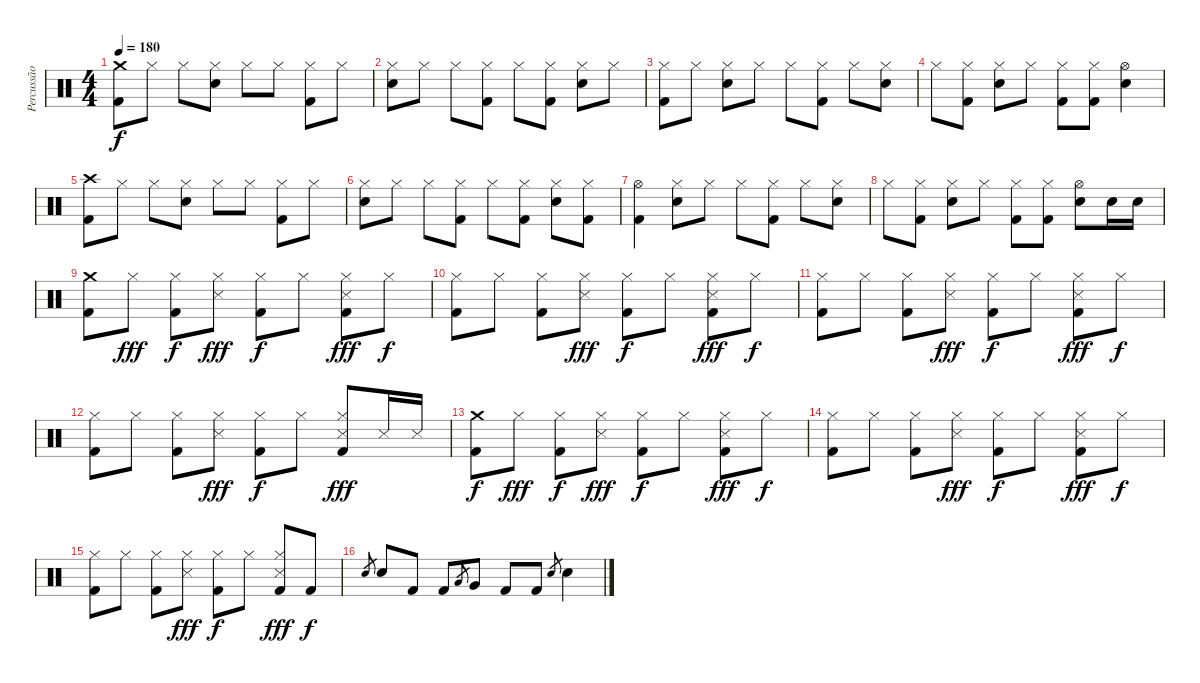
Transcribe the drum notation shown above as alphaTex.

\track ("Percussão" "Percussão") {instrument percussion}
\staff {score}
\articulation defaults
\ts (4 4)
\tempo 180
\clef neutral
\ks c
("Crash medium (hit)" "Kick (hit) 2").8{dy f} "Hi-Hat (closed)".8 "Hi-Hat (closed)".8 ("Hi-Hat (closed)" "Electric Snare (hit)").8 "Hi-Hat (closed)".8 "Hi-Hat (closed)".8 ("Hi-Hat (closed)" "Kick (hit) 2").8 "Hi-Hat (closed)".8 |
("Hi-Hat (closed)" "Electric Snare (hit)").8 "Hi-Hat (closed)".8 "Hi-Hat (closed)".8 ("Hi-Hat (closed)" "Kick (hit) 2").8 "Hi-Hat (closed)".8 ("Hi-Hat (closed)" "Kick (hit) 2").8 ("Hi-Hat (closed)" "Electric Snare (hit)").8 "Hi-Hat (closed)".8 |
("Hi-Hat (closed)" "Kick (hit) 2").8 "Hi-Hat (closed)".8 ("Hi-Hat (closed)" "Electric Snare (hit)").8 "Hi-Hat (closed)".8 "Hi-Hat (closed)".8 ("Hi-Hat (closed)" "Kick (hit) 2").8 "Hi-Hat (closed)".8 ("Hi-Hat (closed)" "Electric Snare (hit)").8 |
"Hi-Hat (closed)".8 ("Hi-Hat (closed)" "Kick (hit) 2").8 ("Hi-Hat (closed)" "Electric Snare (hit)").8 "Hi-Hat (closed)".8 ("Hi-Hat (closed)" "Kick (hit) 2").8 ("Hi-Hat (closed)" "Kick (hit) 2").8 ("Hi-Hat (open)" "Electric Snare (hit)").4 |
("Crash high (hit)" "Kick (hit) 2").8 "Hi-Hat (closed)".8 "Hi-Hat (closed)".8 ("Hi-Hat (closed)" "Electric Snare (hit)").8 "Hi-Hat (closed)".8 "Hi-Hat (closed)".8 ("Hi-Hat (closed)" "Kick (hit) 2").8 "Hi-Hat (closed)".8 |
("Hi-Hat (closed)" "Electric Snare (hit)").8 "Hi-Hat (closed)".8 "Hi-Hat (closed)".8 ("Hi-Hat (closed)" "Kick (hit) 2").8 "Hi-Hat (closed)".8 ("Hi-Hat (closed)" "Kick (hit) 2").8 ("Hi-Hat (closed)" "Electric Snare (hit)").8 ("Hi-Hat (closed)" "Kick (hit) 2").8 |
("Hi-Hat (open)" "Kick (hit) 2").4 ("Hi-Hat (closed)" "Electric Snare (hit)").8 "Hi-Hat (closed)".8 "Hi-Hat (closed)".8 ("Hi-Hat (closed)" "Kick (hit) 2").8 "Hi-Hat (closed)".8 ("Hi-Hat (closed)" "Electric Snare (hit)").8 |
"Hi-Hat (closed)".8 ("Hi-Hat (closed)" "Kick (hit) 2").8 ("Hi-Hat (closed)" "Electric Snare (hit)").8 "Hi-Hat (closed)".8 ("Hi-Hat (closed)" "Kick (hit) 2").8 ("Hi-Hat (closed)" "Kick (hit) 2").8 ("Hi-Hat (open)" "Electric Snare (hit)").8 "Electric Snare (hit)".16 "Electric Snare (hit)".16 |
("Crash medium (hit)" "Kick (hit) 2").8 "Hi-Hat (closed)".8{dy fff} ("Hi-Hat (closed)" "Kick (hit) 2").8{dy f} ("Hi-Hat (closed)" "Snare (side stick) 3").8{dy fff} ("Hi-Hat (closed)" "Kick (hit) 2").8{dy f} "Hi-Hat (closed)".8 ("Hi-Hat (closed)" "Snare (side stick) 3" "Kick (hit) 2").8{dy fff} "Hi-Hat (closed)".8{dy f} |
("Hi-Hat (closed)" "Kick (hit) 2").8 "Hi-Hat (closed)".8 ("Hi-Hat (closed)" "Kick (hit) 2").8 ("Hi-Hat (closed)" "Snare (side stick) 3").8{dy fff} ("Hi-Hat (closed)" "Kick (hit) 2").8{dy f} "Hi-Hat (closed)".8 ("Hi-Hat (closed)" "Snare (side stick) 3" "Kick (hit) 2").8{dy fff} "Hi-Hat (closed)".8{dy f} |
("Hi-Hat (closed)" "Kick (hit) 2").8 "Hi-Hat (closed)".8 ("Hi-Hat (closed)" "Kick (hit) 2").8 ("Hi-Hat (closed)" "Snare (side stick) 3").8{dy fff} ("Hi-Hat (closed)" "Kick (hit) 2").8{dy f} "Hi-Hat (closed)".8 ("Hi-Hat (closed)" "Snare (side stick) 3" "Kick (hit) 2").8{dy fff} "Hi-Hat (closed)".8{dy f} |
("Hi-Hat (closed)" "Kick (hit) 2").8 "Hi-Hat (closed)".8 ("Hi-Hat (closed)" "Kick (hit) 2").8 ("Hi-Hat (closed)" "Snare (side stick) 3").8{dy fff} ("Hi-Hat (closed)" "Kick (hit) 2").8{dy f} "Hi-Hat (closed)".8 ("Hi-Hat (closed)" "Snare (side stick) 3" "Kick (hit) 2").8{dy fff} "Snare (side stick) 3".16 "Snare (side stick) 3".16 |
("Crash medium (hit)" "Kick (hit) 2").8{dy f} "Hi-Hat (closed)".8{dy fff} ("Hi-Hat (closed)" "Kick (hit) 2").8{dy f} ("Hi-Hat (closed)" "Snare (side stick) 3").8{dy fff} ("Hi-Hat (closed)" "Kick (hit) 2").8{dy f} "Hi-Hat (closed)".8 ("Hi-Hat (closed)" "Snare (side stick) 3" "Kick (hit) 2").8{dy fff} "Hi-Hat (closed)".8{dy f} |
("Hi-Hat (closed)" "Kick (hit) 2").8 "Hi-Hat (closed)".8 ("Hi-Hat (closed)" "Kick (hit) 2").8 ("Hi-Hat (closed)" "Snare (side stick) 3").8{dy fff} ("Hi-Hat (closed)" "Kick (hit) 2").8{dy f} "Hi-Hat (closed)".8 ("Hi-Hat (closed)" "Snare (side stick) 3" "Kick (hit) 2").8{dy fff} "Hi-Hat (closed)".8{dy f} |
("Hi-Hat (closed)" "Kick (hit) 2").8 "Hi-Hat (closed)".8 ("Hi-Hat (closed)" "Kick (hit) 2").8 ("Hi-Hat (closed)" "Snare (side stick) 3").8{dy fff} ("Hi-Hat (closed)" "Kick (hit) 2").8{dy f} "Hi-Hat (closed)".8 ("Hi-Hat (closed)" "Snare (side stick) 3" "Kick (hit) 2").8{dy fff} "Kick (hit) 2".8{dy f} |
"Electric Snare (hit)".8{gr} "Electric Snare (hit)".8 "Kick (hit) 2".8 "Kick (hit) 2".8 "Low Tom (hit)".8{gr} "Very Low Tom (hit)".8 "Kick (hit) 2".8 "Kick (hit) 2".8 "Electric Snare (hit)".8{gr} "Electric Snare (hit)".4
